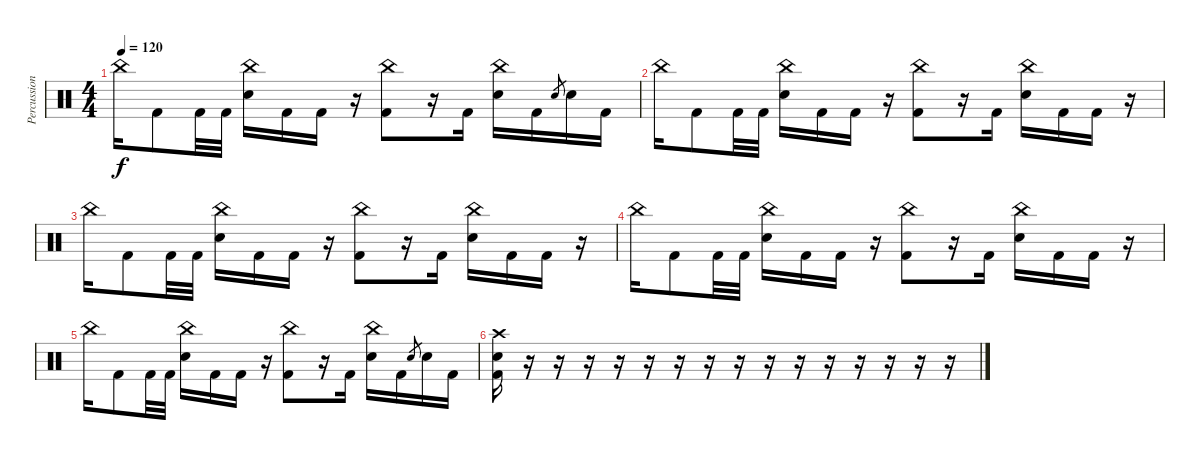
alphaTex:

\track ("Percussion" "Percussion") {instrument percussion}
\staff {score}
\articulation defaults
\ts (4 4)
\tempo 120
\clef neutral
\ks c "China (hit)".16{dy f} "Kick (hit) 2".8 "Kick (hit) 2".32 "Kick (hit) 2".32
("China (hit)" "Electric Snare (hit)").16 "Kick (hit) 2".16 "Kick (hit) 2".16 r.16 ("China (hit)" "Kick (hit) 2").8 r.16 "Kick (hit) 2".16 ("China (hit)" "Electric Snare (hit)").16 "Kick (hit) 2".16 "Electric Snare (hit)".8{gr} "Electric Snare (hit)".16 "Kick (hit) 2".16 |
"China (hit)".16 "Kick (hit) 2".8 "Kick (hit) 2".32 "Kick (hit) 2".32 ("China (hit)" "Electric Snare (hit)").16 "Kick (hit) 2".16 "Kick (hit) 2".16 r.16 ("China (hit)" "Kick (hit) 2").8 r.16 "Kick (hit) 2".16 ("China (hit)" "Electric Snare (hit)").16 "Kick (hit) 2".16 "Kick (hit) 2".16 r.16 |
"China (hit)".16 "Kick (hit) 2".8 "Kick (hit) 2".32 "Kick (hit) 2".32 ("China (hit)" "Electric Snare (hit)").16 "Kick (hit) 2".16 "Kick (hit) 2".16 r.16 ("China (hit)" "Kick (hit) 2").8 r.16 "Kick (hit) 2".16 ("China (hit)" "Electric Snare (hit)").16 "Kick (hit) 2".16 "Kick (hit) 2".16 r.16 |
"China (hit)".16 "Kick (hit) 2".8 "Kick (hit) 2".32 "Kick (hit) 2".32 ("China (hit)" "Electric Snare (hit)").16 "Kick (hit) 2".16 "Kick (hit) 2".16 r.16 ("China (hit)" "Kick (hit) 2").8 r.16 "Kick (hit) 2".16 ("China (hit)" "Electric Snare (hit)").16 "Kick (hit) 2".16 "Kick (hit) 2".16 r.16 |
"China (hit)".16 "Kick (hit) 2".8 "Kick (hit) 2".32 "Kick (hit) 2".32 ("China (hit)" "Electric Snare (hit)").16 "Kick (hit) 2".16 "Kick (hit) 2".16 r.16 ("China (hit)" "Kick (hit) 2").8 r.16 "Kick (hit) 2".16 ("China (hit)" "Electric Snare (hit)").16 "Kick (hit) 2".16 "Electric Snare (hit)".8{gr} "Electric Snare (hit)".16 "Kick (hit) 2".16 |
("Crash high (hit)" "Electric Snare (hit)" "Kick (hit) 2").16 r.16 r.16 r.16 r.16 r.16 r.16 r.16 r.16 r.16 r.16 r.16 r.16 r.16 r.16 r.16
